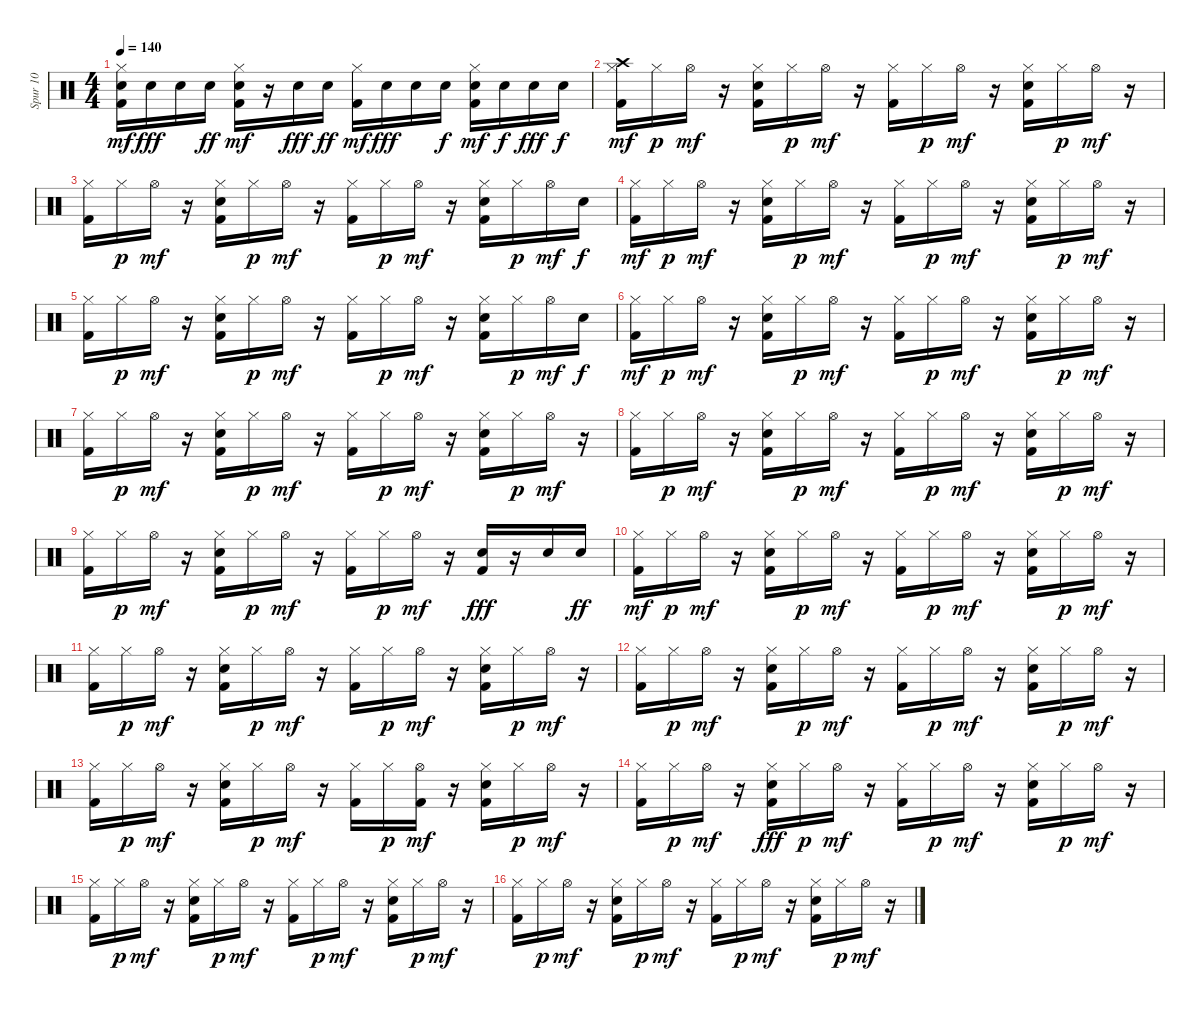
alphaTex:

\track ("Spur 10" "Spur 10") {instrument percussion}
\staff {score}
\articulation defaults
\ts (4 4)
\tempo 140
\clef neutral
\ks c
("Kick (hit) 2" "Snare (hit) 2" "Hi-Hat (closed)").16{dy mf} "Snare (hit) 2".16{dy fff} "Snare (hit) 2".16 "Snare (hit) 2".16{dy ff} ("Kick (hit) 2" "Snare (hit) 2" "Hi-Hat (closed)").16{dy mf} r.16 "Snare (hit) 2".16{dy fff} "Snare (hit) 2".16{dy ff} ("Kick (hit) 2" "Hi-Hat (closed)").16{dy mf} "Snare (hit) 2".16{dy fff} "Snare (hit) 2".16 "Snare (hit) 2".16{dy f} ("Kick (hit) 2" "Snare (hit) 2" "Hi-Hat (closed)").16{dy mf} "Snare (hit) 2".16{dy f} "Snare (hit) 2".16{dy fff} "Snare (hit) 2".16{dy f} |
("Kick (hit) 2" "Hi-Hat (closed)" "Crash high (hit)").16{dy mf} "Hi-Hat (closed)".16{dy p} "Hi-Hat (open)".16{dy mf} r.16 ("Kick (hit) 2" "Snare (hit) 2" "Hi-Hat (closed)").16 "Hi-Hat (closed)".16{dy p} "Hi-Hat (open)".16{dy mf} r.16 ("Kick (hit) 2" "Hi-Hat (closed)").16 "Hi-Hat (closed)".16{dy p} "Hi-Hat (open)".16{dy mf} r.16 ("Kick (hit) 2" "Snare (hit) 2" "Hi-Hat (closed)").16 "Hi-Hat (closed)".16{dy p} "Hi-Hat (open)".16{dy mf} r.16 |
("Kick (hit) 2" "Hi-Hat (closed)").16 "Hi-Hat (closed)".16{dy p} "Hi-Hat (open)".16{dy mf} r.16 ("Kick (hit) 2" "Snare (hit) 2" "Hi-Hat (closed)").16 "Hi-Hat (closed)".16{dy p} "Hi-Hat (open)".16{dy mf} r.16 ("Kick (hit) 2" "Hi-Hat (closed)").16 "Hi-Hat (closed)".16{dy p} "Hi-Hat (open)".16{dy mf} r.16 ("Kick (hit) 2" "Snare (hit) 2" "Hi-Hat (closed)").16 "Hi-Hat (closed)".16{dy p} "Hi-Hat (open)".16{dy mf} "Snare (hit) 2".16{dy f} |
("Kick (hit) 2" "Hi-Hat (closed)").16{dy mf} "Hi-Hat (closed)".16{dy p} "Hi-Hat (open)".16{dy mf} r.16 ("Kick (hit) 2" "Snare (hit) 2" "Hi-Hat (closed)").16 "Hi-Hat (closed)".16{dy p} "Hi-Hat (open)".16{dy mf} r.16 ("Kick (hit) 2" "Hi-Hat (closed)").16 "Hi-Hat (closed)".16{dy p} "Hi-Hat (open)".16{dy mf} r.16 ("Kick (hit) 2" "Snare (hit) 2" "Hi-Hat (closed)").16 "Hi-Hat (closed)".16{dy p} "Hi-Hat (open)".16{dy mf} r.16 |
("Kick (hit) 2" "Hi-Hat (closed)").16 "Hi-Hat (closed)".16{dy p} "Hi-Hat (open)".16{dy mf} r.16 ("Kick (hit) 2" "Snare (hit) 2" "Hi-Hat (closed)").16 "Hi-Hat (closed)".16{dy p} "Hi-Hat (open)".16{dy mf} r.16 ("Kick (hit) 2" "Hi-Hat (closed)").16 "Hi-Hat (closed)".16{dy p} "Hi-Hat (open)".16{dy mf} r.16 ("Kick (hit) 2" "Snare (hit) 2" "Hi-Hat (closed)").16 "Hi-Hat (closed)".16{dy p} "Hi-Hat (open)".16{dy mf} "Snare (hit) 2".16{dy f} |
("Kick (hit) 2" "Hi-Hat (closed)").16{dy mf} "Hi-Hat (closed)".16{dy p} "Hi-Hat (open)".16{dy mf} r.16 ("Kick (hit) 2" "Snare (hit) 2" "Hi-Hat (closed)").16 "Hi-Hat (closed)".16{dy p} "Hi-Hat (open)".16{dy mf} r.16 ("Kick (hit) 2" "Hi-Hat (closed)").16 "Hi-Hat (closed)".16{dy p} "Hi-Hat (open)".16{dy mf} r.16 ("Kick (hit) 2" "Snare (hit) 2" "Hi-Hat (closed)").16 "Hi-Hat (closed)".16{dy p} "Hi-Hat (open)".16{dy mf} r.16 |
("Kick (hit) 2" "Hi-Hat (closed)").16 "Hi-Hat (closed)".16{dy p} "Hi-Hat (open)".16{dy mf} r.16 ("Kick (hit) 2" "Snare (hit) 2" "Hi-Hat (closed)").16 "Hi-Hat (closed)".16{dy p} "Hi-Hat (open)".16{dy mf} r.16 ("Kick (hit) 2" "Hi-Hat (closed)").16 "Hi-Hat (closed)".16{dy p} "Hi-Hat (open)".16{dy mf} r.16 ("Kick (hit) 2" "Snare (hit) 2" "Hi-Hat (closed)").16 "Hi-Hat (closed)".16{dy p} "Hi-Hat (open)".16{dy mf} r.16 |
("Kick (hit) 2" "Hi-Hat (closed)").16 "Hi-Hat (closed)".16{dy p} "Hi-Hat (open)".16{dy mf} r.16 ("Kick (hit) 2" "Snare (hit) 2" "Hi-Hat (closed)").16 "Hi-Hat (closed)".16{dy p} "Hi-Hat (open)".16{dy mf} r.16 ("Kick (hit) 2" "Hi-Hat (closed)").16 "Hi-Hat (closed)".16{dy p} "Hi-Hat (open)".16{dy mf} r.16 ("Kick (hit) 2" "Snare (hit) 2" "Hi-Hat (closed)").16 "Hi-Hat (closed)".16{dy p} "Hi-Hat (open)".16{dy mf} r.16 |
("Kick (hit) 2" "Hi-Hat (closed)").16 "Hi-Hat (closed)".16{dy p} "Hi-Hat (open)".16{dy mf} r.16 ("Kick (hit) 2" "Snare (hit) 2" "Hi-Hat (closed)").16 "Hi-Hat (closed)".16{dy p} "Hi-Hat (open)".16{dy mf} r.16 ("Kick (hit) 2" "Hi-Hat (closed)").16 "Hi-Hat (closed)".16{dy p} "Hi-Hat (open)".16{dy mf} r.16 ("Kick (hit) 2" "Snare (hit) 2").16{dy fff} r.16 "Snare (hit) 2".16 "Snare (hit) 2".16{dy ff} |
("Kick (hit) 2" "Hi-Hat (closed)").16{dy mf} "Hi-Hat (closed)".16{dy p} "Hi-Hat (open)".16{dy mf} r.16 ("Snare (hit) 2" "Kick (hit) 2" "Hi-Hat (closed)").16 "Hi-Hat (closed)".16{dy p} "Hi-Hat (open)".16{dy mf} r.16 ("Kick (hit) 2" "Hi-Hat (closed)").16 "Hi-Hat (closed)".16{dy p} "Hi-Hat (open)".16{dy mf} r.16 ("Kick (hit) 2" "Snare (hit) 2" "Hi-Hat (closed)").16 "Hi-Hat (closed)".16{dy p} "Hi-Hat (open)".16{dy mf} r.16 |
("Kick (hit) 2" "Hi-Hat (closed)").16 "Hi-Hat (closed)".16{dy p} "Hi-Hat (open)".16{dy mf} r.16 ("Kick (hit) 2" "Snare (hit) 2" "Hi-Hat (closed)").16 "Hi-Hat (closed)".16{dy p} "Hi-Hat (open)".16{dy mf} r.16 ("Kick (hit) 2" "Hi-Hat (closed)").16 "Hi-Hat (closed)".16{dy p} "Hi-Hat (open)".16{dy mf} r.16 ("Kick (hit) 2" "Snare (hit) 2" "Hi-Hat (closed)").16 "Hi-Hat (closed)".16{dy p} "Hi-Hat (open)".16{dy mf} r.16 |
("Kick (hit) 2" "Hi-Hat (closed)").16 "Hi-Hat (closed)".16{dy p} "Hi-Hat (open)".16{dy mf} r.16 ("Kick (hit) 2" "Snare (hit) 2" "Hi-Hat (closed)").16 "Hi-Hat (closed)".16{dy p} "Hi-Hat (open)".16{dy mf} r.16 ("Kick (hit) 2" "Hi-Hat (closed)").16 "Hi-Hat (closed)".16{dy p} "Hi-Hat (open)".16{dy mf} r.16 ("Kick (hit) 2" "Snare (hit) 2" "Hi-Hat (closed)").16 "Hi-Hat (closed)".16{dy p} "Hi-Hat (open)".16{dy mf} r.16 |
("Kick (hit) 2" "Hi-Hat (closed)").16 "Hi-Hat (closed)".16{dy p} "Hi-Hat (open)".16{dy mf} r.16 ("Kick (hit) 2" "Snare (hit) 2" "Hi-Hat (closed)").16 "Hi-Hat (closed)".16{dy p} "Hi-Hat (open)".16{dy mf} r.16 ("Kick (hit) 2" "Hi-Hat (closed)").16 "Hi-Hat (closed)".16{dy p} ("Kick (hit) 2" "Hi-Hat (open)").16{dy mf} r.16 ("Snare (hit) 2" "Kick (hit) 2" "Hi-Hat (closed)").16 "Hi-Hat (closed)".16{dy p} "Hi-Hat (open)".16{dy mf} r.16 |
("Kick (hit) 2" "Hi-Hat (closed)").16 "Hi-Hat (closed)".16{dy p} "Hi-Hat (open)".16{dy mf} r.16 ("Hi-Hat (closed)" "Kick (hit) 2" "Snare (hit) 2").16{dy fff} "Hi-Hat (closed)".16{dy p} "Hi-Hat (open)".16{dy mf} r.16 ("Kick (hit) 2" "Hi-Hat (closed)").16 "Hi-Hat (closed)".16{dy p} "Hi-Hat (open)".16{dy mf} r.16 ("Kick (hit) 2" "Snare (hit) 2" "Hi-Hat (closed)").16 "Hi-Hat (closed)".16{dy p} "Hi-Hat (open)".16{dy mf} r.16 |
("Kick (hit) 2" "Hi-Hat (closed)").16 "Hi-Hat (closed)".16{dy p} "Hi-Hat (open)".16{dy mf} r.16 ("Kick (hit) 2" "Snare (hit) 2" "Hi-Hat (closed)").16 "Hi-Hat (closed)".16{dy p} "Hi-Hat (open)".16{dy mf} r.16 ("Kick (hit) 2" "Hi-Hat (closed)").16 "Hi-Hat (closed)".16{dy p} "Hi-Hat (open)".16{dy mf} r.16 ("Kick (hit) 2" "Snare (hit) 2" "Hi-Hat (closed)").16 "Hi-Hat (closed)".16{dy p} "Hi-Hat (open)".16{dy mf} r.16 |
("Kick (hit) 2" "Hi-Hat (closed)").16 "Hi-Hat (closed)".16{dy p} "Hi-Hat (open)".16{dy mf} r.16 ("Kick (hit) 2" "Snare (hit) 2" "Hi-Hat (closed)").16 "Hi-Hat (closed)".16{dy p} "Hi-Hat (open)".16{dy mf} r.16 ("Kick (hit) 2" "Hi-Hat (closed)").16 "Hi-Hat (closed)".16{dy p} "Hi-Hat (open)".16{dy mf} r.16 ("Kick (hit) 2" "Snare (hit) 2" "Hi-Hat (closed)").16 "Hi-Hat (closed)".16{dy p} "Hi-Hat (open)".16{dy mf} r.16
